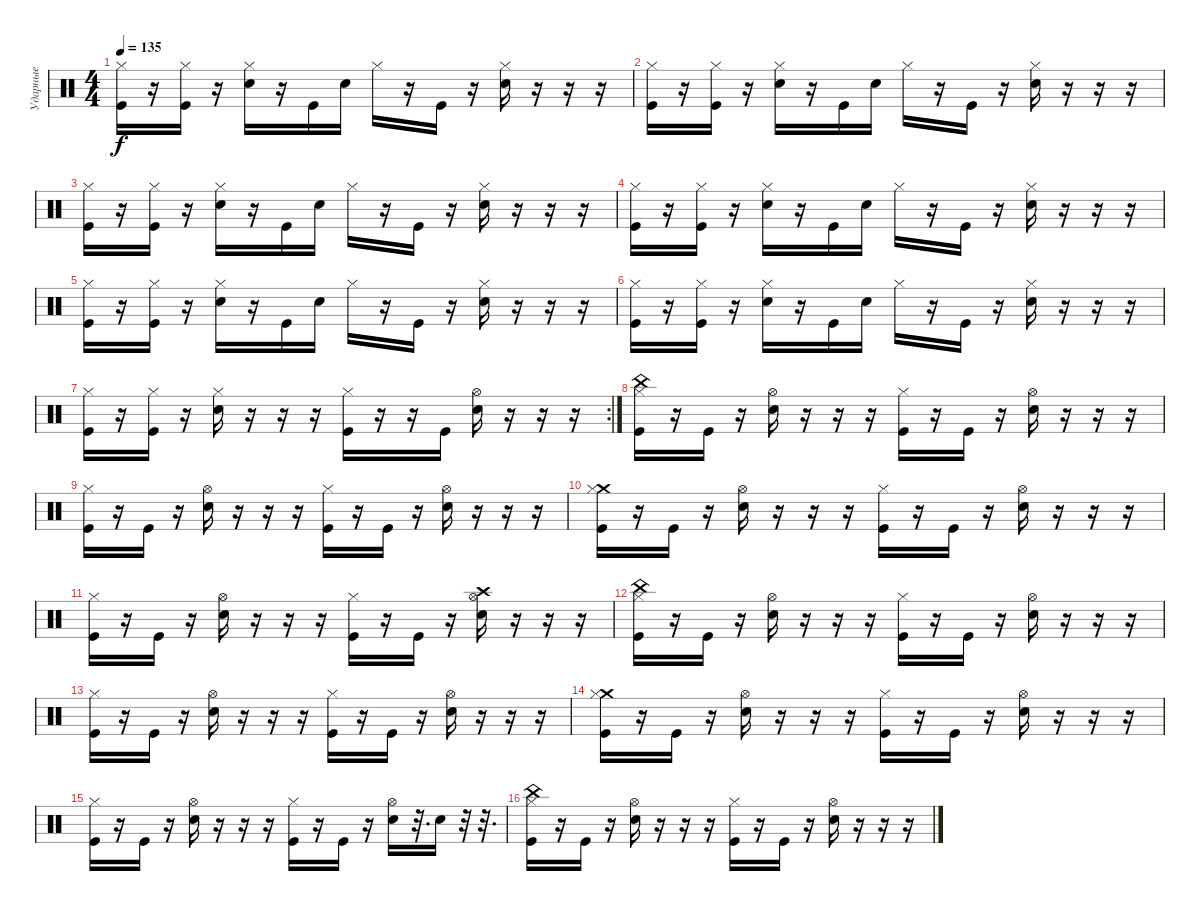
\track ("Ударные" "Ударные") {instrument percussion}
\staff {score}
\articulation defaults
\ts (4 4)
\tempo 135
\clef neutral
\ks c
("Hi-Hat (closed)" "Kick (hit)").16{dy f} r.16 ("Hi-Hat (closed)" "Kick (hit)").16 r.16 ("Hi-Hat (closed)" "Electric Snare (hit)").16 r.16 "Kick (hit)".16 "Electric Snare (hit)".16 "Hi-Hat (closed)".16 r.16 "Kick (hit)".16 r.16 ("Hi-Hat (closed)" "Electric Snare (hit)").16 r.16 r.16 r.16 |
("Hi-Hat (closed)" "Kick (hit)").16 r.16 ("Hi-Hat (closed)" "Kick (hit)").16 r.16 ("Hi-Hat (closed)" "Electric Snare (hit)").16 r.16 "Kick (hit)".16 "Electric Snare (hit)".16 "Hi-Hat (closed)".16 r.16 "Kick (hit)".16 r.16 ("Hi-Hat (closed)" "Electric Snare (hit)").16 r.16 r.16 r.16 |
("Hi-Hat (closed)" "Kick (hit)").16 r.16 ("Hi-Hat (closed)" "Kick (hit)").16 r.16 ("Hi-Hat (closed)" "Electric Snare (hit)").16 r.16 "Kick (hit)".16 "Electric Snare (hit)".16 "Hi-Hat (closed)".16 r.16 "Kick (hit)".16 r.16 ("Hi-Hat (closed)" "Electric Snare (hit)").16 r.16 r.16 r.16 |
("Hi-Hat (closed)" "Kick (hit)").16 r.16 ("Hi-Hat (closed)" "Kick (hit)").16 r.16 ("Hi-Hat (closed)" "Electric Snare (hit)").16 r.16 "Kick (hit)".16 "Electric Snare (hit)".16 "Hi-Hat (closed)".16 r.16 "Kick (hit)".16 r.16 ("Hi-Hat (closed)" "Electric Snare (hit)").16 r.16 r.16 r.16 |
("Hi-Hat (closed)" "Kick (hit)").16 r.16 ("Hi-Hat (closed)" "Kick (hit)").16 r.16 ("Hi-Hat (closed)" "Electric Snare (hit)").16 r.16 "Kick (hit)".16 "Electric Snare (hit)".16 "Hi-Hat (closed)".16 r.16 "Kick (hit)".16 r.16 ("Hi-Hat (closed)" "Electric Snare (hit)").16 r.16 r.16 r.16 |
("Hi-Hat (closed)" "Kick (hit)").16 r.16 ("Hi-Hat (closed)" "Kick (hit)").16 r.16 ("Hi-Hat (closed)" "Electric Snare (hit)").16 r.16 "Kick (hit)".16 "Electric Snare (hit)".16 "Hi-Hat (closed)".16 r.16 "Kick (hit)".16 r.16 ("Hi-Hat (closed)" "Electric Snare (hit)").16 r.16 r.16 r.16 |
\rc 2
("Hi-Hat (closed)" "Kick (hit)").16 r.16 ("Hi-Hat (closed)" "Kick (hit)").16 r.16 ("Hi-Hat (closed)" "Electric Snare (hit)").16 r.16 r.16 r.16 ("Hi-Hat (closed)" "Kick (hit)").16 r.16 r.16 "Kick (hit)".16 ("Hi-Hat (open)" "Electric Snare (hit)").16 r.16 r.16 r.16 |
("China (hit)" "Kick (hit)" "Hi-Hat (closed)").16 r.16 "Kick (hit)".16 r.16 ("Electric Snare (hit)" "Hi-Hat (open)").16 r.16 r.16 r.16 ("Kick (hit)" "Hi-Hat (closed)").16 r.16 "Kick (hit)".16 r.16 ("Electric Snare (hit)" "Hi-Hat (open)").16 r.16 r.16 r.16 |
("Kick (hit)" "Hi-Hat (closed)").16 r.16 "Kick (hit)".16 r.16 ("Electric Snare (hit)" "Hi-Hat (open)").16 r.16 r.16 r.16 ("Kick (hit)" "Hi-Hat (closed)").16 r.16 "Kick (hit)".16 r.16 ("Electric Snare (hit)" "Hi-Hat (open)").16 r.16 r.16 r.16 |
("Crash medium (hit)" "Kick (hit)" "Hi-Hat (closed)").16 r.16 "Kick (hit)".16 r.16 ("Electric Snare (hit)" "Hi-Hat (open)").16 r.16 r.16 r.16 ("Kick (hit)" "Hi-Hat (closed)").16 r.16 "Kick (hit)".16 r.16 ("Electric Snare (hit)" "Hi-Hat (open)").16 r.16 r.16 r.16 |
("Kick (hit)" "Hi-Hat (closed)").16 r.16 "Kick (hit)".16 r.16 ("Electric Snare (hit)" "Hi-Hat (open)").16 r.16 r.16 r.16 ("Kick (hit)" "Hi-Hat (closed)").16 r.16 "Kick (hit)".16 r.16 ("Crash high (hit)" "Electric Snare (hit)" "Hi-Hat (open)").16 r.16 r.16 r.16 |
("China (hit)" "Kick (hit)" "Hi-Hat (closed)").16 r.16 "Kick (hit)".16 r.16 ("Electric Snare (hit)" "Hi-Hat (open)").16 r.16 r.16 r.16 ("Kick (hit)" "Hi-Hat (closed)").16 r.16 "Kick (hit)".16 r.16 ("Electric Snare (hit)" "Hi-Hat (open)").16 r.16 r.16 r.16 |
("Kick (hit)" "Hi-Hat (closed)").16 r.16 "Kick (hit)".16 r.16 ("Electric Snare (hit)" "Hi-Hat (open)").16 r.16 r.16 r.16 ("Kick (hit)" "Hi-Hat (closed)").16 r.16 "Kick (hit)".16 r.16 ("Electric Snare (hit)" "Hi-Hat (open)").16 r.16 r.16 r.16 |
("Crash medium (hit)" "Kick (hit)" "Hi-Hat (closed)").16 r.16 "Kick (hit)".16 r.16 ("Electric Snare (hit)" "Hi-Hat (open)").16 r.16 r.16 r.16 ("Kick (hit)" "Hi-Hat (closed)").16 r.16 "Kick (hit)".16 r.16 ("Electric Snare (hit)" "Hi-Hat (open)").16 r.16 r.16 r.16 |
("Kick (hit)" "Hi-Hat (closed)").16 r.16 "Kick (hit)".16 r.16 ("Electric Snare (hit)" "Hi-Hat (open)").16 r.16 r.16 r.16 ("Kick (hit)" "Hi-Hat (closed)").16 r.16 "Kick (hit)".16 r.16 ("Electric Snare (hit)" "Hi-Hat (open)").16 r.32{d} "Electric Snare (hit)".16 r.32 r.32{d} |
("China (hit)" "Kick (hit)" "Hi-Hat (closed)").16 r.16 "Kick (hit)".16 r.16 ("Electric Snare (hit)" "Hi-Hat (open)").16 r.16 r.16 r.16 ("Kick (hit)" "Hi-Hat (closed)").16 r.16 "Kick (hit)".16 r.16 ("Electric Snare (hit)" "Hi-Hat (open)").16 r.16 r.16 r.16
